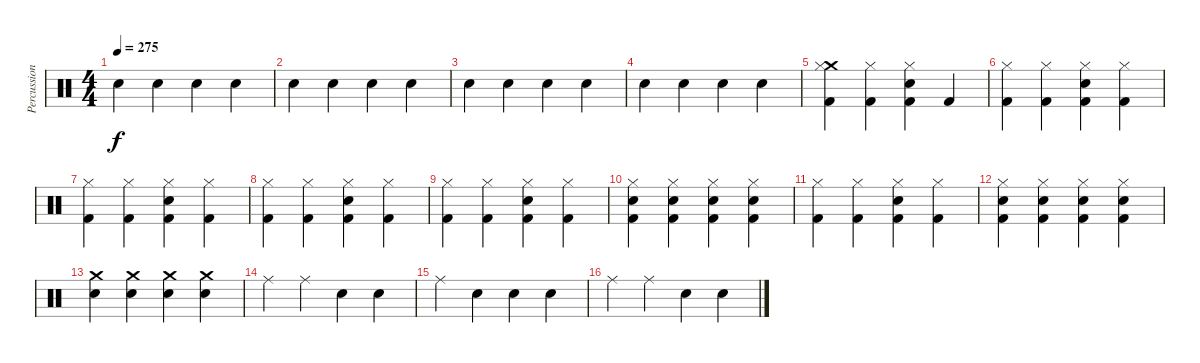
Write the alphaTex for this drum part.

\track ("Percussion" "Percussion") {instrument percussion}
\staff {score}
\articulation defaults
\ts (4 4)
\tempo 275
\clef neutral
\ks c "Electric Snare (hit)".4{dy f} "Electric Snare (hit)".4 "Electric Snare (hit)".4 "Electric Snare (hit)".4
|
"Electric Snare (hit)".4 "Electric Snare (hit)".4 "Electric Snare (hit)".4 "Electric Snare (hit)".4 |
"Electric Snare (hit)".4 "Electric Snare (hit)".4 "Electric Snare (hit)".4 "Electric Snare (hit)".4 |
"Electric Snare (hit)".4 "Electric Snare (hit)".4 "Electric Snare (hit)".4 "Electric Snare (hit)".4 |
("Crash medium (hit)" "Kick (hit) 2" "Hi-Hat (closed)").4 ("Kick (hit) 2" "Hi-Hat (closed)").4 ("Electric Snare (hit)" "Kick (hit) 2" "Hi-Hat (closed)").4 "Kick (hit) 2".4 |
("Kick (hit) 2" "Hi-Hat (closed)").4 ("Kick (hit) 2" "Hi-Hat (closed)").4 ("Electric Snare (hit)" "Kick (hit) 2" "Hi-Hat (closed)").4 ("Kick (hit) 2" "Hi-Hat (closed)").4 |
("Kick (hit) 2" "Hi-Hat (closed)").4 ("Kick (hit) 2" "Hi-Hat (closed)").4 ("Electric Snare (hit)" "Kick (hit) 2" "Hi-Hat (closed)").4 ("Kick (hit) 2" "Hi-Hat (closed)").4 |
("Kick (hit) 2" "Hi-Hat (closed)").4 ("Kick (hit) 2" "Hi-Hat (closed)").4 ("Electric Snare (hit)" "Kick (hit) 2" "Hi-Hat (closed)").4 ("Kick (hit) 2" "Hi-Hat (closed)").4 |
("Kick (hit) 2" "Hi-Hat (closed)").4 ("Kick (hit) 2" "Hi-Hat (closed)").4 ("Electric Snare (hit)" "Kick (hit) 2" "Hi-Hat (closed)").4 ("Kick (hit) 2" "Hi-Hat (closed)").4 |
("Electric Snare (hit)" "Kick (hit) 2" "Hi-Hat (closed)").4 ("Electric Snare (hit)" "Kick (hit) 2" "Hi-Hat (closed)").4 ("Electric Snare (hit)" "Kick (hit) 2" "Hi-Hat (closed)").4 ("Electric Snare (hit)" "Kick (hit) 2" "Hi-Hat (closed)").4 |
("Kick (hit) 2" "Hi-Hat (closed)").4 ("Kick (hit) 2" "Hi-Hat (closed)").4 ("Electric Snare (hit)" "Kick (hit) 2" "Hi-Hat (closed)").4 ("Kick (hit) 2" "Hi-Hat (closed)").4 |
("Electric Snare (hit)" "Kick (hit) 2" "Hi-Hat (closed)").4 ("Electric Snare (hit)" "Kick (hit) 2" "Hi-Hat (closed)").4 ("Electric Snare (hit)" "Kick (hit) 2" "Hi-Hat (closed)").4 ("Electric Snare (hit)" "Kick (hit) 2" "Hi-Hat (closed)").4 |
("Crash medium (hit)" "Snare (hit) 2").4 ("Crash medium (hit)" "Snare (hit) 2").4 ("Crash medium (hit)" "Snare (hit) 2").4 ("Crash medium (hit)" "Snare (hit) 2").4 |
"Ride (middle)".4 "Ride (middle)".4 "Snare (hit)".4 "Snare (hit)".4 |
"Ride (middle)".4 "Snare (hit)".4 "Snare (hit)".4 "Snare (hit)".4 |
"Ride (middle)".4 "Ride (middle)".4 "Snare (hit)".4 "Snare (hit)".4
